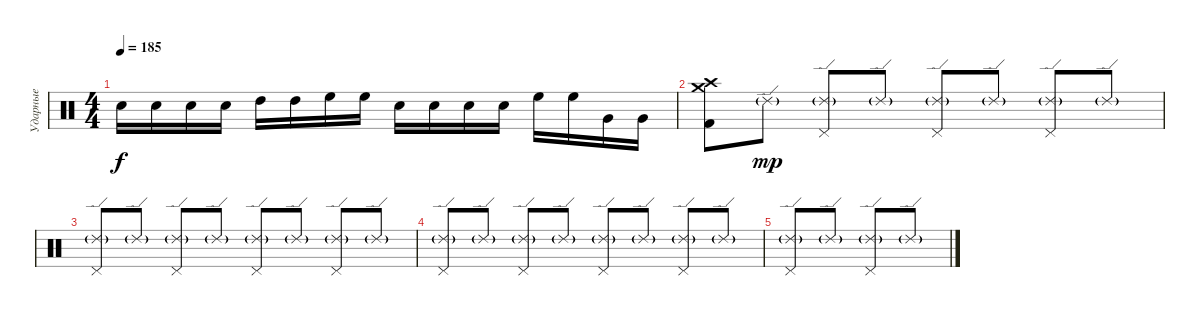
\track ("Ударные" "Ударные") {instrument percussion}
\staff {score}
\articulation defaults
\ts (4 4)
\tempo 185
\clef neutral
\ks c "Electric Snare (hit)".16{dy f} "Electric Snare (hit)".16 "Electric Snare (hit)".16 "Electric Snare (hit)".16 "High Tom (hit)".16 "High Tom (hit)".16 "High Floor Tom (hit)".16 "High Floor Tom (hit)".16 "Electric Snare (hit)".16 "Electric Snare (hit)".16 "Electric Snare (hit)".16 "Electric Snare (hit)".16 "High Floor Tom (hit)".16 "High Floor Tom (hit)".16 "Very Low Tom (hit)".16 "Very Low Tom (hit)".16
|
("Crash medium (hit)" "Crash high (hit)" "Kick (hit) 2").8 "Ride (edge) 2"{g}.8{dy mp} ("Ride (edge) 2"{g} "Pedal Hi-Hat (hit)").8 "Ride (edge) 2"{g}.8 ("Ride (edge) 2"{g} "Pedal Hi-Hat (hit)").8 "Ride (edge) 2"{g}.8 ("Ride (edge) 2"{g} "Pedal Hi-Hat (hit)").8 "Ride (edge) 2"{g}.8 |
("Ride (edge) 2"{g} "Pedal Hi-Hat (hit)").8 "Ride (edge) 2"{g}.8 ("Ride (edge) 2"{g} "Pedal Hi-Hat (hit)").8 "Ride (edge) 2"{g}.8 ("Ride (edge) 2"{g} "Pedal Hi-Hat (hit)").8 "Ride (edge) 2"{g}.8 ("Ride (edge) 2"{g} "Pedal Hi-Hat (hit)").8 "Ride (edge) 2"{g}.8 |
("Ride (edge) 2"{g} "Pedal Hi-Hat (hit)").8 "Ride (edge) 2"{g}.8 ("Ride (edge) 2"{g} "Pedal Hi-Hat (hit)").8 "Ride (edge) 2"{g}.8 ("Ride (edge) 2"{g} "Pedal Hi-Hat (hit)").8 "Ride (edge) 2"{g}.8 ("Ride (edge) 2"{g} "Pedal Hi-Hat (hit)").8 "Ride (edge) 2"{g}.8 |
("Ride (edge) 2"{g} "Pedal Hi-Hat (hit)").8 "Ride (edge) 2"{g}.8 ("Ride (edge) 2"{g} "Pedal Hi-Hat (hit)").8 "Ride (edge) 2"{g}.8
